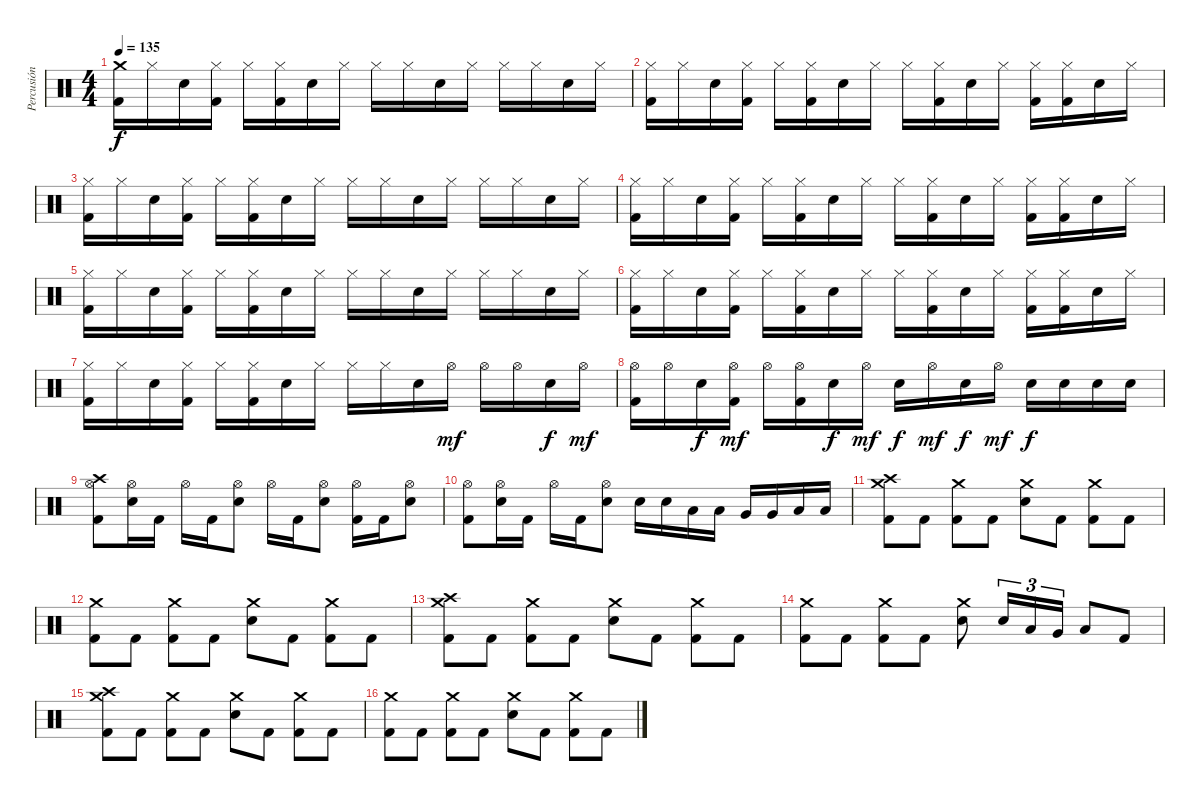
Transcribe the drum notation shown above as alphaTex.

\track ("Percusión" "Percusión") {instrument percussion}
\staff {score}
\articulation defaults
\ts (4 4)
\tempo 135
\clef neutral
\ks c
("Crash medium (hit)" "Kick (hit) 2").16{dy f} "Hi-Hat (closed)".16 "Electric Snare (hit)".16 ("Hi-Hat (closed)" "Kick (hit) 2").16 "Hi-Hat (closed)".16 ("Hi-Hat (closed)" "Kick (hit) 2").16 "Electric Snare (hit)".16 "Hi-Hat (closed)".16 "Hi-Hat (closed)".16 "Hi-Hat (closed)".16 "Electric Snare (hit)".16 "Hi-Hat (closed)".16 "Hi-Hat (closed)".16 "Hi-Hat (closed)".16 "Electric Snare (hit)".16 "Hi-Hat (closed)".16 |
("Hi-Hat (closed)" "Kick (hit) 2").16 "Hi-Hat (closed)".16 "Electric Snare (hit)".16 ("Hi-Hat (closed)" "Kick (hit) 2").16 "Hi-Hat (closed)".16 ("Hi-Hat (closed)" "Kick (hit) 2").16 "Electric Snare (hit)".16 "Hi-Hat (closed)".16 "Hi-Hat (closed)".16 ("Hi-Hat (closed)" "Kick (hit) 2").16 "Electric Snare (hit)".16 "Hi-Hat (closed)".16 ("Hi-Hat (closed)" "Kick (hit) 2").16 ("Hi-Hat (closed)" "Kick (hit) 2").16 "Electric Snare (hit)".16 "Hi-Hat (closed)".16 |
("Hi-Hat (closed)" "Kick (hit) 2").16 "Hi-Hat (closed)".16 "Electric Snare (hit)".16 ("Hi-Hat (closed)" "Kick (hit) 2").16 "Hi-Hat (closed)".16 ("Hi-Hat (closed)" "Kick (hit) 2").16 "Electric Snare (hit)".16 "Hi-Hat (closed)".16 "Hi-Hat (closed)".16 "Hi-Hat (closed)".16 "Electric Snare (hit)".16 "Hi-Hat (closed)".16 "Hi-Hat (closed)".16 "Hi-Hat (closed)".16 "Electric Snare (hit)".16 "Hi-Hat (closed)".16 |
("Hi-Hat (closed)" "Kick (hit) 2").16 "Hi-Hat (closed)".16 "Electric Snare (hit)".16 ("Hi-Hat (closed)" "Kick (hit) 2").16 "Hi-Hat (closed)".16 ("Hi-Hat (closed)" "Kick (hit) 2").16 "Electric Snare (hit)".16 "Hi-Hat (closed)".16 "Hi-Hat (closed)".16 ("Hi-Hat (closed)" "Kick (hit) 2").16 "Electric Snare (hit)".16 "Hi-Hat (closed)".16 ("Hi-Hat (closed)" "Kick (hit) 2").16 ("Hi-Hat (closed)" "Kick (hit) 2").16 "Electric Snare (hit)".16 "Hi-Hat (closed)".16 |
("Hi-Hat (closed)" "Kick (hit) 2").16 "Hi-Hat (closed)".16 "Electric Snare (hit)".16 ("Hi-Hat (closed)" "Kick (hit) 2").16 "Hi-Hat (closed)".16 ("Hi-Hat (closed)" "Kick (hit) 2").16 "Electric Snare (hit)".16 "Hi-Hat (closed)".16 "Hi-Hat (closed)".16 "Hi-Hat (closed)".16 "Electric Snare (hit)".16 "Hi-Hat (closed)".16 "Hi-Hat (closed)".16 "Hi-Hat (closed)".16 "Electric Snare (hit)".16 "Hi-Hat (closed)".16 |
("Hi-Hat (closed)" "Kick (hit) 2").16 "Hi-Hat (closed)".16 "Electric Snare (hit)".16 ("Hi-Hat (closed)" "Kick (hit) 2").16 "Hi-Hat (closed)".16 ("Hi-Hat (closed)" "Kick (hit) 2").16 "Electric Snare (hit)".16 "Hi-Hat (closed)".16 "Hi-Hat (closed)".16 ("Hi-Hat (closed)" "Kick (hit) 2").16 "Electric Snare (hit)".16 "Hi-Hat (closed)".16 ("Hi-Hat (closed)" "Kick (hit) 2").16 ("Hi-Hat (closed)" "Kick (hit) 2").16 "Electric Snare (hit)".16 "Hi-Hat (closed)".16 |
("Hi-Hat (closed)" "Kick (hit) 2").16 "Hi-Hat (closed)".16 "Electric Snare (hit)".16 ("Hi-Hat (closed)" "Kick (hit) 2").16 "Hi-Hat (closed)".16 ("Hi-Hat (closed)" "Kick (hit) 2").16 "Electric Snare (hit)".16 "Hi-Hat (closed)".16 "Hi-Hat (closed)".16 "Hi-Hat (closed)".16 "Electric Snare (hit)".16 "Hi-Hat (open)".16{dy mf} "Hi-Hat (open)".16 "Hi-Hat (open)".16 "Electric Snare (hit)".16{dy f} "Hi-Hat (open)".16{dy mf} |
("Hi-Hat (open)" "Kick (hit) 2").16 "Hi-Hat (open)".16 "Electric Snare (hit)".16{dy f} ("Hi-Hat (open)" "Kick (hit) 2").16{dy mf} "Hi-Hat (open)".16 ("Hi-Hat (open)" "Kick (hit) 2").16 "Electric Snare (hit)".16{dy f} "Hi-Hat (open)".16{dy mf} "Electric Snare (hit)".16{dy f} "Hi-Hat (open)".16{dy mf} "Electric Snare (hit)".16{dy f} "Hi-Hat (open)".16{dy mf} "Electric Snare (hit)".16{dy f} "Electric Snare (hit)".16 "Electric Snare (hit)".16 "Electric Snare (hit)".16 |
("Crash high (hit)" "Hi-Hat (open)" "Kick (hit) 2").8 ("Hi-Hat (open)" "Electric Snare (hit)").16 "Kick (hit) 2".16 "Hi-Hat (open)".16 "Kick (hit) 2".16 ("Hi-Hat (open)" "Electric Snare (hit)").8 "Hi-Hat (open)".16 "Kick (hit) 2".16 ("Hi-Hat (open)" "Electric Snare (hit)").8 ("Hi-Hat (open)" "Kick (hit) 2").16 "Kick (hit) 2".16 ("Hi-Hat (open)" "Electric Snare (hit)").8 |
("Hi-Hat (open)" "Kick (hit) 2").8 ("Hi-Hat (open)" "Electric Snare (hit)").16 "Kick (hit) 2".16 "Hi-Hat (open)".16 "Kick (hit) 2".16 ("Hi-Hat (open)" "Electric Snare (hit)").8 "Electric Snare (hit)".16 "Electric Snare (hit)".16 "Low Tom (hit)".16 "Low Tom (hit)".16 "Very Low Tom (hit)".16 "Very Low Tom (hit)".16 "Low Floor Tom (hit)".16 "Low Floor Tom (hit)".16 |
("Crash high (hit)" "Crash medium (hit)" "Kick (hit) 2").8 "Kick (hit) 2".8 ("Crash medium (hit)" "Kick (hit) 2").8 "Kick (hit) 2".8 ("Crash medium (hit)" "Electric Snare (hit)").8 "Kick (hit) 2".8 ("Crash medium (hit)" "Kick (hit) 2").8 "Kick (hit) 2".8 |
("Crash medium (hit)" "Kick (hit) 2").8 "Kick (hit) 2".8 ("Crash medium (hit)" "Kick (hit) 2").8 "Kick (hit) 2".8 ("Crash medium (hit)" "Electric Snare (hit)").8 "Kick (hit) 2".8 ("Crash medium (hit)" "Kick (hit) 2").8 "Kick (hit) 2".8 |
("Crash high (hit)" "Crash medium (hit)" "Kick (hit) 2").8 "Kick (hit) 2".8 ("Crash medium (hit)" "Kick (hit) 2").8 "Kick (hit) 2".8 ("Crash medium (hit)" "Electric Snare (hit)").8 "Kick (hit) 2".8 ("Crash medium (hit)" "Kick (hit) 2").8 "Kick (hit) 2".8 |
("Crash medium (hit)" "Kick (hit) 2").8 "Kick (hit) 2".8 ("Crash medium (hit)" "Kick (hit) 2").8 "Kick (hit) 2".8 ("Crash medium (hit)" "Electric Snare (hit)").8 "Electric Snare (hit)".16{tu (3 2)} "Low Tom (hit)".16{tu (3 2)} "Very Low Tom (hit)".16{tu (3 2)} "Low Floor Tom (hit)".8 "Kick (hit) 2".8 |
("Crash high (hit)" "Crash medium (hit)" "Kick (hit) 2").8 "Kick (hit) 2".8 ("Crash medium (hit)" "Kick (hit) 2").8 "Kick (hit) 2".8 ("Crash medium (hit)" "Electric Snare (hit)").8 "Kick (hit) 2".8 ("Crash medium (hit)" "Kick (hit) 2").8 "Kick (hit) 2".8 |
("Crash medium (hit)" "Kick (hit) 2").8 "Kick (hit) 2".8 ("Crash medium (hit)" "Kick (hit) 2").8 "Kick (hit) 2".8 ("Crash medium (hit)" "Electric Snare (hit)").8 "Kick (hit) 2".8 ("Crash medium (hit)" "Kick (hit) 2").8 "Kick (hit) 2".8
